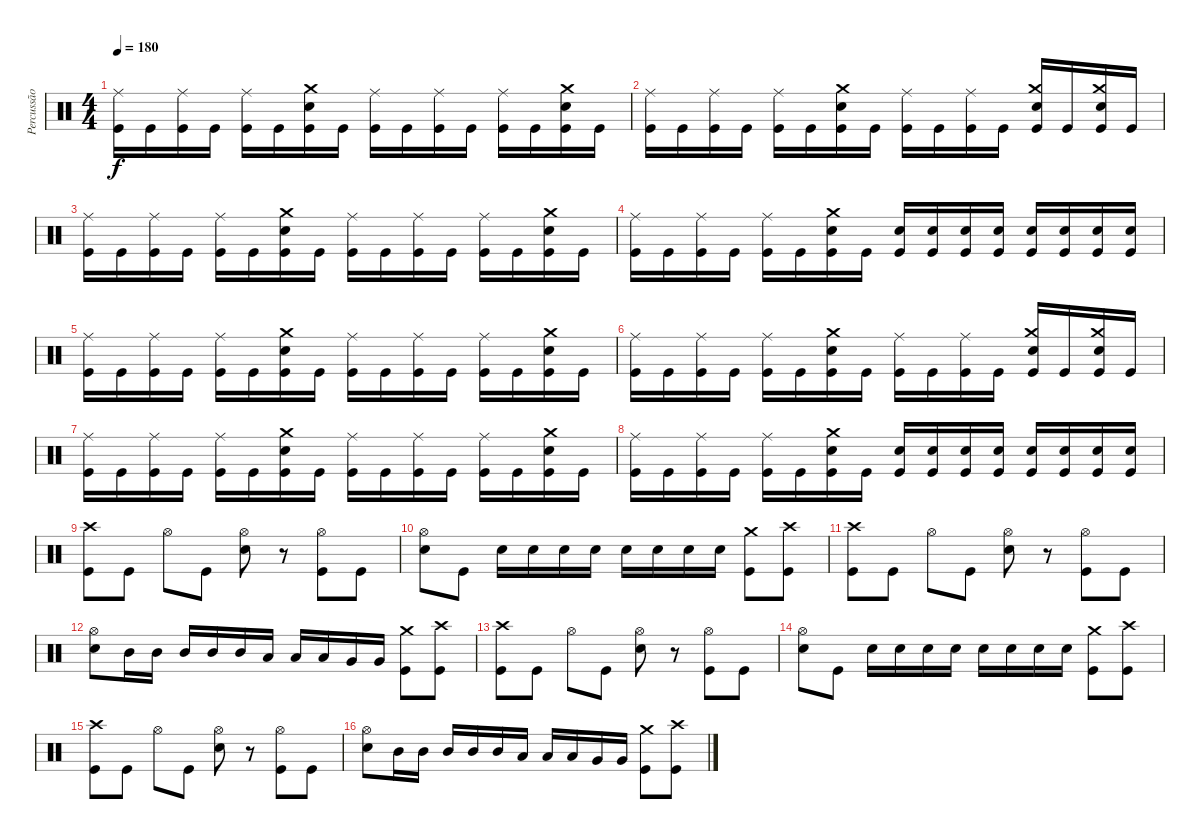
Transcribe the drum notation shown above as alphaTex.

\track ("Percussão" "Percussão") {mute instrument percussion}
\staff {score}
\articulation defaults
\ts (4 4)
\tempo 180
\clef neutral
\ks c
("Ride (middle)" "Kick (hit)").16{dy f} "Kick (hit)".16 ("Ride (middle)" "Kick (hit)").16 "Kick (hit)".16 ("Ride (middle)" "Kick (hit)").16 "Kick (hit)".16 ("Crash medium (hit)" "Electric Snare (hit)" "Kick (hit)").16 "Kick (hit)".16 ("Ride (middle)" "Kick (hit)").16 "Kick (hit)".16 ("Ride (middle)" "Kick (hit)").16 "Kick (hit)".16 ("Ride (middle)" "Kick (hit)").16 "Kick (hit)".16 ("Crash medium (hit)" "Electric Snare (hit)" "Kick (hit)").16 "Kick (hit)".16 |
("Ride (middle)" "Kick (hit)").16 "Kick (hit)".16 ("Ride (middle)" "Kick (hit)").16 "Kick (hit)".16 ("Ride (middle)" "Kick (hit)").16 "Kick (hit)".16 ("Crash medium (hit)" "Electric Snare (hit)" "Kick (hit)").16 "Kick (hit)".16 ("Ride (middle)" "Kick (hit)").16 "Kick (hit)".16 ("Ride (middle)" "Kick (hit)").16 "Kick (hit)".16 ("Crash medium (hit)" "Electric Snare (hit)" "Kick (hit)").16 "Kick (hit)".16 ("Crash medium (hit)" "Electric Snare (hit)" "Kick (hit)").16 "Kick (hit)".16 |
("Ride (middle)" "Kick (hit)").16 "Kick (hit)".16 ("Ride (middle)" "Kick (hit)").16 "Kick (hit)".16 ("Ride (middle)" "Kick (hit)").16 "Kick (hit)".16 ("Crash medium (hit)" "Electric Snare (hit)" "Kick (hit)").16 "Kick (hit)".16 ("Ride (middle)" "Kick (hit)").16 "Kick (hit)".16 ("Ride (middle)" "Kick (hit)").16 "Kick (hit)".16 ("Ride (middle)" "Kick (hit)").16 "Kick (hit)".16 ("Crash medium (hit)" "Electric Snare (hit)" "Kick (hit)").16 "Kick (hit)".16 |
("Ride (middle)" "Kick (hit)").16 "Kick (hit)".16 ("Ride (middle)" "Kick (hit)").16 "Kick (hit)".16 ("Ride (middle)" "Kick (hit)").16 "Kick (hit)".16 ("Crash medium (hit)" "Electric Snare (hit)" "Kick (hit)").16 "Kick (hit)".16 ("Electric Snare (hit)" "Kick (hit)").16 ("Electric Snare (hit)" "Kick (hit)").16 ("Electric Snare (hit)" "Kick (hit)").16 ("Electric Snare (hit)" "Kick (hit)").16 ("Electric Snare (hit)" "Kick (hit)").16 ("Electric Snare (hit)" "Kick (hit)").16 ("Electric Snare (hit)" "Kick (hit)").16 ("Electric Snare (hit)" "Kick (hit)").16 |
("Ride (middle)" "Kick (hit)").16 "Kick (hit)".16 ("Ride (middle)" "Kick (hit)").16 "Kick (hit)".16 ("Ride (middle)" "Kick (hit)").16 "Kick (hit)".16 ("Crash medium (hit)" "Electric Snare (hit)" "Kick (hit)").16 "Kick (hit)".16 ("Ride (middle)" "Kick (hit)").16 "Kick (hit)".16 ("Ride (middle)" "Kick (hit)").16 "Kick (hit)".16 ("Ride (middle)" "Kick (hit)").16 "Kick (hit)".16 ("Crash medium (hit)" "Electric Snare (hit)" "Kick (hit)").16 "Kick (hit)".16 |
("Ride (middle)" "Kick (hit)").16 "Kick (hit)".16 ("Ride (middle)" "Kick (hit)").16 "Kick (hit)".16 ("Ride (middle)" "Kick (hit)").16 "Kick (hit)".16 ("Crash medium (hit)" "Electric Snare (hit)" "Kick (hit)").16 "Kick (hit)".16 ("Ride (middle)" "Kick (hit)").16 "Kick (hit)".16 ("Ride (middle)" "Kick (hit)").16 "Kick (hit)".16 ("Crash medium (hit)" "Electric Snare (hit)" "Kick (hit)").16 "Kick (hit)".16 ("Crash medium (hit)" "Electric Snare (hit)" "Kick (hit)").16 "Kick (hit)".16 |
("Ride (middle)" "Kick (hit)").16 "Kick (hit)".16 ("Ride (middle)" "Kick (hit)").16 "Kick (hit)".16 ("Ride (middle)" "Kick (hit)").16 "Kick (hit)".16 ("Crash medium (hit)" "Electric Snare (hit)" "Kick (hit)").16 "Kick (hit)".16 ("Ride (middle)" "Kick (hit)").16 "Kick (hit)".16 ("Ride (middle)" "Kick (hit)").16 "Kick (hit)".16 ("Ride (middle)" "Kick (hit)").16 "Kick (hit)".16 ("Crash medium (hit)" "Electric Snare (hit)" "Kick (hit)").16 "Kick (hit)".16 |
("Ride (middle)" "Kick (hit)").16 "Kick (hit)".16 ("Ride (middle)" "Kick (hit)").16 "Kick (hit)".16 ("Ride (middle)" "Kick (hit)").16 "Kick (hit)".16 ("Crash medium (hit)" "Electric Snare (hit)" "Kick (hit)").16 "Kick (hit)".16 ("Electric Snare (hit)" "Kick (hit)").16 ("Electric Snare (hit)" "Kick (hit)").16 ("Electric Snare (hit)" "Kick (hit)").16 ("Electric Snare (hit)" "Kick (hit)").16 ("Electric Snare (hit)" "Kick (hit)").16 ("Electric Snare (hit)" "Kick (hit)").16 ("Electric Snare (hit)" "Kick (hit)").16 ("Electric Snare (hit)" "Kick (hit)").16 |
("Crash high (hit)" "Kick (hit)").8 "Kick (hit)".8 "Hi-Hat (open)".8 "Kick (hit)".8 ("Hi-Hat (open)" "Electric Snare (hit)").8 r.8 ("Hi-Hat (open)" "Kick (hit)").8 "Kick (hit)".8 |
("Hi-Hat (open)" "Electric Snare (hit)").8 "Kick (hit)".8 "Electric Snare (hit)".16 "Electric Snare (hit)".16 "Electric Snare (hit)".16 "Electric Snare (hit)".16 "Electric Snare (hit)".16 "Electric Snare (hit)".16 "Electric Snare (hit)".16 "Electric Snare (hit)".16 ("Crash medium (hit)" "Kick (hit)").8 ("Crash high (hit)" "Kick (hit)").8 |
("Crash high (hit)" "Kick (hit)").8 "Kick (hit)".8 "Hi-Hat (open)".8 "Kick (hit)".8 ("Hi-Hat (open)" "Electric Snare (hit)").8 r.8 ("Hi-Hat (open)" "Kick (hit)").8 "Kick (hit)".8 |
("Hi-Hat (open)" "Electric Snare (hit)").8 "Mid Tom (hit)".16 "Mid Tom (hit)".16 "Mid Tom (hit)".16 "Mid Tom (hit)".16 "Mid Tom (hit)".16 "Low Tom (hit)".16 "Low Tom (hit)".16 "Low Tom (hit)".16 "Very Low Tom (hit)".16 "Very Low Tom (hit)".16 ("Crash medium (hit)" "Kick (hit)").8 ("Crash high (hit)" "Kick (hit)").8 |
("Crash high (hit)" "Kick (hit)").8 "Kick (hit)".8 "Hi-Hat (open)".8 "Kick (hit)".8 ("Hi-Hat (open)" "Electric Snare (hit)").8 r.8 ("Hi-Hat (open)" "Kick (hit)").8 "Kick (hit)".8 |
("Hi-Hat (open)" "Electric Snare (hit)").8 "Kick (hit)".8 "Electric Snare (hit)".16 "Electric Snare (hit)".16 "Electric Snare (hit)".16 "Electric Snare (hit)".16 "Electric Snare (hit)".16 "Electric Snare (hit)".16 "Electric Snare (hit)".16 "Electric Snare (hit)".16 ("Crash medium (hit)" "Kick (hit)").8 ("Crash high (hit)" "Kick (hit)").8 |
("Crash high (hit)" "Kick (hit)").8 "Kick (hit)".8 "Hi-Hat (open)".8 "Kick (hit)".8 ("Hi-Hat (open)" "Electric Snare (hit)").8 r.8 ("Hi-Hat (open)" "Kick (hit)").8 "Kick (hit)".8 |
("Hi-Hat (open)" "Electric Snare (hit)").8 "Mid Tom (hit)".16 "Mid Tom (hit)".16 "Mid Tom (hit)".16 "Mid Tom (hit)".16 "Mid Tom (hit)".16 "Low Tom (hit)".16 "Low Tom (hit)".16 "Low Tom (hit)".16 "Very Low Tom (hit)".16 "Very Low Tom (hit)".16 ("Crash medium (hit)" "Kick (hit)").8 ("Crash high (hit)" "Kick (hit)").8
